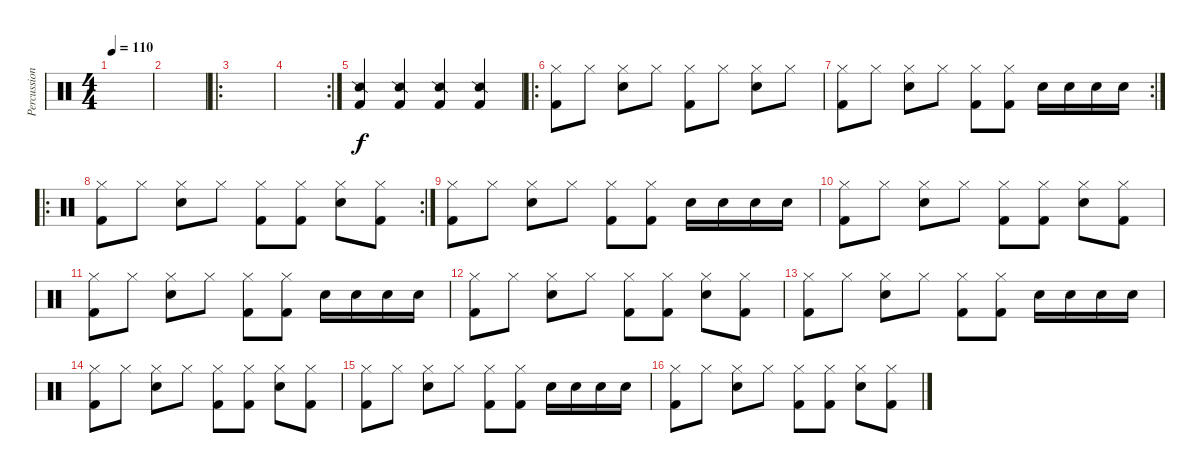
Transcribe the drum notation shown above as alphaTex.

\track ("Percussions" "Percussion") {instrument percussion}
\staff {score}
\articulation defaults
\ts (4 4)
\tempo 110
\clef neutral
\ks c
|
|
\ro
|
\rc 2
|
("Snare (side stick) 2" "Kick (hit) 2").4 ("Snare (side stick) 2" "Kick (hit) 2").4 ("Snare (side stick) 2" "Kick (hit) 2").4 ("Snare (side stick) 2" "Kick (hit) 2").4 |
\ro
("Kick (hit) 2" "Hi-Hat (closed)").8 "Hi-Hat (closed)".8 ("Electric Snare (hit)" "Hi-Hat (closed)").8 "Hi-Hat (closed)".8 ("Kick (hit) 2" "Hi-Hat (closed)").8 "Hi-Hat (closed)".8 ("Electric Snare (hit)" "Hi-Hat (closed)").8 "Hi-Hat (closed)".8 |
\rc 2
("Kick (hit) 2" "Hi-Hat (closed)").8 "Hi-Hat (closed)".8 ("Electric Snare (hit)" "Hi-Hat (closed)").8 "Hi-Hat (closed)".8 ("Kick (hit) 2" "Hi-Hat (closed)").8 ("Kick (hit) 2" "Hi-Hat (closed)").8 "Electric Snare (hit)".16 "Electric Snare (hit)".16 "Electric Snare (hit)".16 "Electric Snare (hit)".16 |
\ro
\rc 2
("Kick (hit) 2" "Hi-Hat (closed)").8 "Hi-Hat (closed)".8 ("Electric Snare (hit)" "Hi-Hat (closed)").8 "Hi-Hat (closed)".8 ("Kick (hit) 2" "Hi-Hat (closed)").8 ("Kick (hit) 2" "Hi-Hat (closed)").8 ("Electric Snare (hit)" "Hi-Hat (closed)").8 ("Kick (hit) 2" "Hi-Hat (closed)").8 |
("Kick (hit) 2" "Hi-Hat (closed)").8 "Hi-Hat (closed)".8 ("Electric Snare (hit)" "Hi-Hat (closed)").8 "Hi-Hat (closed)".8 ("Kick (hit) 2" "Hi-Hat (closed)").8 ("Kick (hit) 2" "Hi-Hat (closed)").8 "Electric Snare (hit)".16 "Electric Snare (hit)".16 "Electric Snare (hit)".16 "Electric Snare (hit)".16 |
("Kick (hit) 2" "Hi-Hat (closed)").8 "Hi-Hat (closed)".8 ("Electric Snare (hit)" "Hi-Hat (closed)").8 "Hi-Hat (closed)".8 ("Kick (hit) 2" "Hi-Hat (closed)").8 ("Kick (hit) 2" "Hi-Hat (closed)").8 ("Electric Snare (hit)" "Hi-Hat (closed)").8 ("Kick (hit) 2" "Hi-Hat (closed)").8 |
("Kick (hit) 2" "Hi-Hat (closed)").8 "Hi-Hat (closed)".8 ("Electric Snare (hit)" "Hi-Hat (closed)").8 "Hi-Hat (closed)".8 ("Kick (hit) 2" "Hi-Hat (closed)").8 ("Kick (hit) 2" "Hi-Hat (closed)").8 "Electric Snare (hit)".16 "Electric Snare (hit)".16 "Electric Snare (hit)".16 "Electric Snare (hit)".16 |
("Kick (hit) 2" "Hi-Hat (closed)").8 "Hi-Hat (closed)".8 ("Electric Snare (hit)" "Hi-Hat (closed)").8 "Hi-Hat (closed)".8 ("Kick (hit) 2" "Hi-Hat (closed)").8 ("Kick (hit) 2" "Hi-Hat (closed)").8 ("Electric Snare (hit)" "Hi-Hat (closed)").8 ("Kick (hit) 2" "Hi-Hat (closed)").8 |
("Kick (hit) 2" "Hi-Hat (closed)").8 "Hi-Hat (closed)".8 ("Electric Snare (hit)" "Hi-Hat (closed)").8 "Hi-Hat (closed)".8 ("Kick (hit) 2" "Hi-Hat (closed)").8 ("Kick (hit) 2" "Hi-Hat (closed)").8 "Electric Snare (hit)".16 "Electric Snare (hit)".16 "Electric Snare (hit)".16 "Electric Snare (hit)".16 |
("Kick (hit) 2" "Hi-Hat (closed)").8 "Hi-Hat (closed)".8 ("Electric Snare (hit)" "Hi-Hat (closed)").8 "Hi-Hat (closed)".8 ("Kick (hit) 2" "Hi-Hat (closed)").8 ("Kick (hit) 2" "Hi-Hat (closed)").8 ("Electric Snare (hit)" "Hi-Hat (closed)").8 ("Kick (hit) 2" "Hi-Hat (closed)").8 |
("Kick (hit) 2" "Hi-Hat (closed)").8 "Hi-Hat (closed)".8 ("Electric Snare (hit)" "Hi-Hat (closed)").8 "Hi-Hat (closed)".8 ("Kick (hit) 2" "Hi-Hat (closed)").8 ("Kick (hit) 2" "Hi-Hat (closed)").8 "Electric Snare (hit)".16 "Electric Snare (hit)".16 "Electric Snare (hit)".16 "Electric Snare (hit)".16 |
("Kick (hit) 2" "Hi-Hat (closed)").8 "Hi-Hat (closed)".8 ("Electric Snare (hit)" "Hi-Hat (closed)").8 "Hi-Hat (closed)".8 ("Kick (hit) 2" "Hi-Hat (closed)").8 ("Kick (hit) 2" "Hi-Hat (closed)").8 ("Electric Snare (hit)" "Hi-Hat (closed)").8 ("Kick (hit) 2" "Hi-Hat (closed)").8
